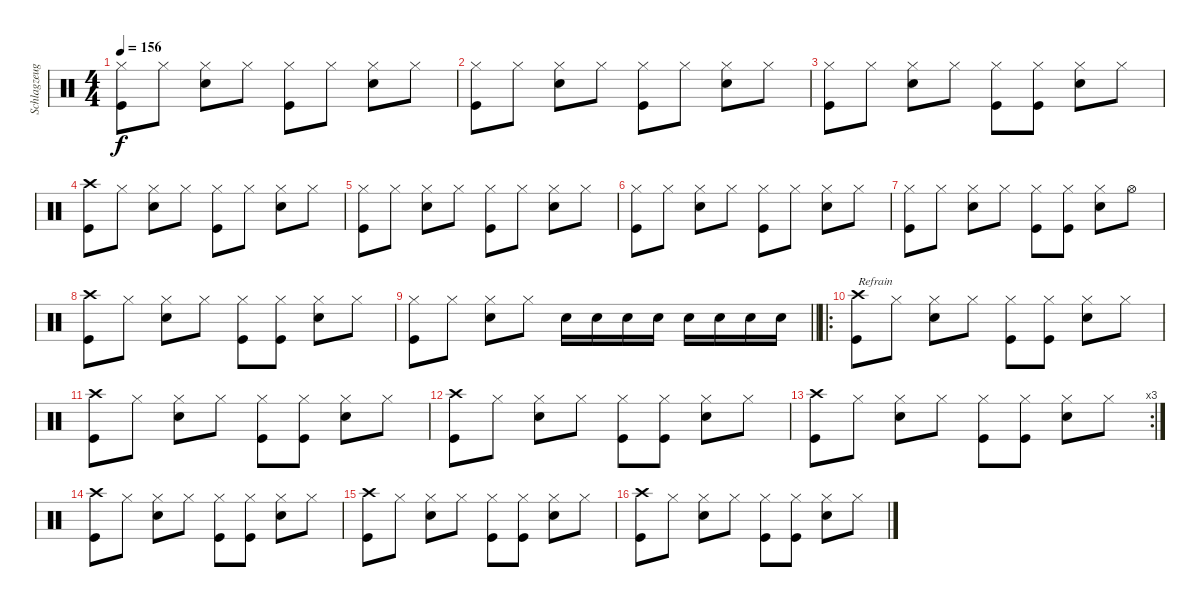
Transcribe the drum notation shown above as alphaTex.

\track ("Schlagzeug" "Schlagzeug") {instrument percussion}
\staff {score}
\articulation defaults
\ts (4 4)
\tempo 156
\clef neutral
\ks c
("Hi-Hat (closed)" "Kick (hit)").8{dy f} "Hi-Hat (closed)".8 ("Hi-Hat (closed)" "Electric Snare (hit)").8 "Hi-Hat (closed)".8 ("Hi-Hat (closed)" "Kick (hit)").8 "Hi-Hat (closed)".8 ("Hi-Hat (closed)" "Electric Snare (hit)").8 "Hi-Hat (closed)".8 |
("Hi-Hat (closed)" "Kick (hit)").8 "Hi-Hat (closed)".8 ("Hi-Hat (closed)" "Electric Snare (hit)").8 "Hi-Hat (closed)".8 ("Hi-Hat (closed)" "Kick (hit)").8 "Hi-Hat (closed)".8 ("Hi-Hat (closed)" "Electric Snare (hit)").8 "Hi-Hat (closed)".8 |
("Hi-Hat (closed)" "Kick (hit)").8 "Hi-Hat (closed)".8 ("Hi-Hat (closed)" "Electric Snare (hit)").8 "Hi-Hat (closed)".8 ("Hi-Hat (closed)" "Kick (hit)").8 ("Hi-Hat (closed)" "Kick (hit)").8 ("Hi-Hat (closed)" "Electric Snare (hit)").8 "Hi-Hat (closed)".8 |
("Crash high (hit)" "Kick (hit)").8 "Hi-Hat (closed)".8 ("Hi-Hat (closed)" "Electric Snare (hit)").8 "Hi-Hat (closed)".8 ("Hi-Hat (closed)" "Kick (hit)").8 "Hi-Hat (closed)".8 ("Hi-Hat (closed)" "Electric Snare (hit)").8 "Hi-Hat (closed)".8 |
("Hi-Hat (closed)" "Kick (hit)").8 "Hi-Hat (closed)".8 ("Hi-Hat (closed)" "Electric Snare (hit)").8 "Hi-Hat (closed)".8 ("Hi-Hat (closed)" "Kick (hit)").8 "Hi-Hat (closed)".8 ("Hi-Hat (closed)" "Electric Snare (hit)").8 "Hi-Hat (closed)".8 |
("Hi-Hat (closed)" "Kick (hit)").8 "Hi-Hat (closed)".8 ("Hi-Hat (closed)" "Electric Snare (hit)").8 "Hi-Hat (closed)".8 ("Hi-Hat (closed)" "Kick (hit)").8 "Hi-Hat (closed)".8 ("Hi-Hat (closed)" "Electric Snare (hit)").8 "Hi-Hat (closed)".8 |
("Hi-Hat (closed)" "Kick (hit)").8 "Hi-Hat (closed)".8 ("Hi-Hat (closed)" "Electric Snare (hit)").8 "Hi-Hat (closed)".8 ("Hi-Hat (closed)" "Kick (hit)").8 ("Hi-Hat (closed)" "Kick (hit)").8 ("Hi-Hat (closed)" "Electric Snare (hit)").8 "Hi-Hat (open)".8 |
("Crash high (hit)" "Kick (hit)").8 "Hi-Hat (closed)".8 ("Hi-Hat (closed)" "Electric Snare (hit)").8 "Hi-Hat (closed)".8 ("Hi-Hat (closed)" "Kick (hit)").8 ("Hi-Hat (closed)" "Kick (hit)").8 ("Hi-Hat (closed)" "Electric Snare (hit)").8 "Hi-Hat (closed)".8 |
\barLineRight lightlight
("Hi-Hat (closed)" "Kick (hit)").8 "Hi-Hat (closed)".8 ("Hi-Hat (closed)" "Electric Snare (hit)").8 "Hi-Hat (closed)".8 "Electric Snare (hit)".16 "Electric Snare (hit)".16 "Electric Snare (hit)".16 "Electric Snare (hit)".16 "Electric Snare (hit)".16 "Electric Snare (hit)".16 "Electric Snare (hit)".16 "Electric Snare (hit)".16 |
\ro
("Crash high (hit)" "Kick (hit)").8{txt "Refrain"} "Hi-Hat (closed)".8 ("Hi-Hat (closed)" "Electric Snare (hit)").8 "Hi-Hat (closed)".8 ("Hi-Hat (closed)" "Kick (hit)").8 ("Hi-Hat (closed)" "Kick (hit)").8 ("Hi-Hat (closed)" "Electric Snare (hit)").8 "Hi-Hat (closed)".8 |
("Crash high (hit)" "Kick (hit)").8 "Hi-Hat (closed)".8 ("Hi-Hat (closed)" "Electric Snare (hit)").8 "Hi-Hat (closed)".8 ("Hi-Hat (closed)" "Kick (hit)").8 ("Hi-Hat (closed)" "Kick (hit)").8 ("Hi-Hat (closed)" "Electric Snare (hit)").8 "Hi-Hat (closed)".8 |
("Crash high (hit)" "Kick (hit)").8 "Hi-Hat (closed)".8 ("Hi-Hat (closed)" "Electric Snare (hit)").8 "Hi-Hat (closed)".8 ("Hi-Hat (closed)" "Kick (hit)").8 ("Hi-Hat (closed)" "Kick (hit)").8 ("Hi-Hat (closed)" "Electric Snare (hit)").8 "Hi-Hat (closed)".8 |
\rc 3
("Crash high (hit)" "Kick (hit)").8 "Hi-Hat (closed)".8 ("Hi-Hat (closed)" "Electric Snare (hit)").8 "Hi-Hat (closed)".8 ("Hi-Hat (closed)" "Kick (hit)").8 ("Hi-Hat (closed)" "Kick (hit)").8 ("Hi-Hat (closed)" "Electric Snare (hit)").8 "Hi-Hat (closed)".8 |
("Crash high (hit)" "Kick (hit)").8 "Hi-Hat (closed)".8 ("Hi-Hat (closed)" "Electric Snare (hit)").8 "Hi-Hat (closed)".8 ("Hi-Hat (closed)" "Kick (hit)").8 ("Hi-Hat (closed)" "Kick (hit)").8 ("Hi-Hat (closed)" "Electric Snare (hit)").8 "Hi-Hat (closed)".8 |
("Crash high (hit)" "Kick (hit)").8 "Hi-Hat (closed)".8 ("Hi-Hat (closed)" "Electric Snare (hit)").8 "Hi-Hat (closed)".8 ("Hi-Hat (closed)" "Kick (hit)").8 ("Hi-Hat (closed)" "Kick (hit)").8 ("Hi-Hat (closed)" "Electric Snare (hit)").8 "Hi-Hat (closed)".8 |
("Crash high (hit)" "Kick (hit)").8 "Hi-Hat (closed)".8 ("Hi-Hat (closed)" "Electric Snare (hit)").8 "Hi-Hat (closed)".8 ("Hi-Hat (closed)" "Kick (hit)").8 ("Hi-Hat (closed)" "Kick (hit)").8 ("Hi-Hat (closed)" "Electric Snare (hit)").8 "Hi-Hat (closed)".8
